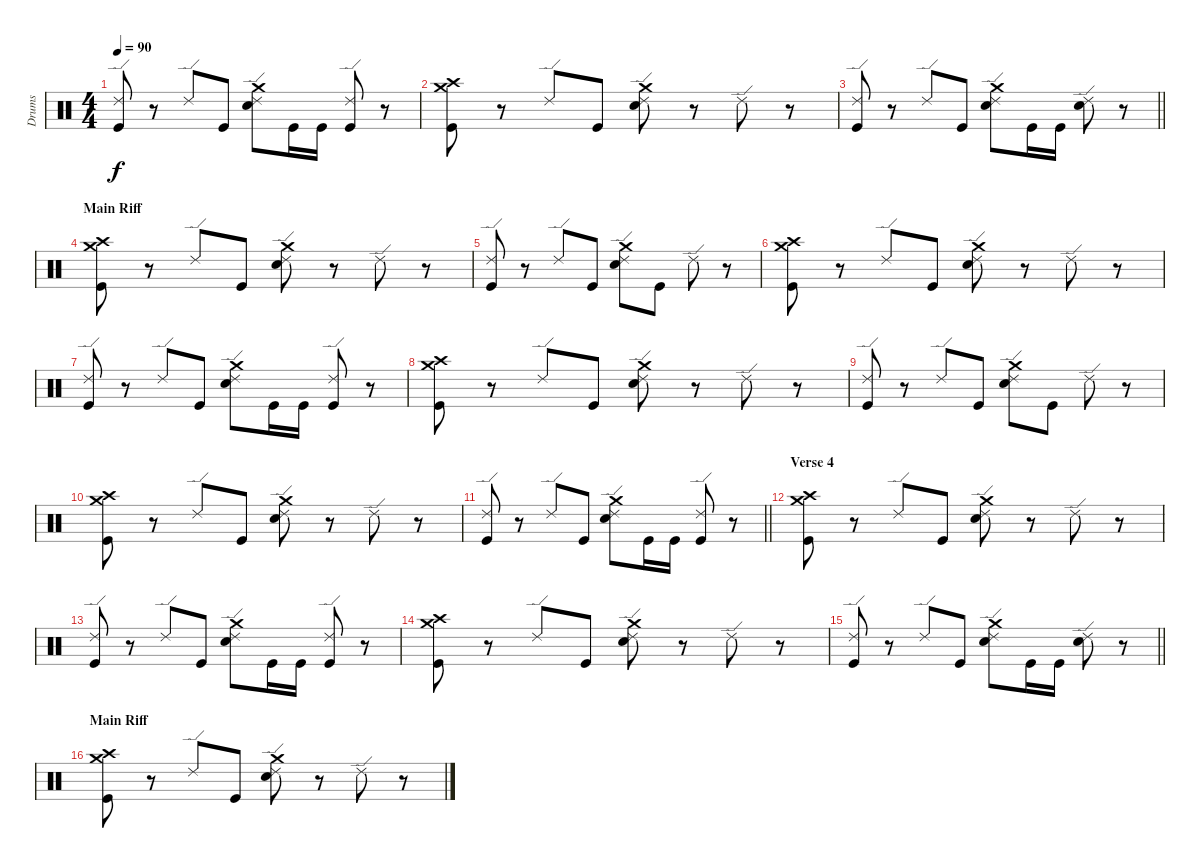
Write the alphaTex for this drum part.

\track ("Drums" "Drums") {instrument percussion}
\staff {score}
\articulation defaults
\ts (4 4)
\tempo 90
\clef neutral
\ks c
("Ride (edge) 2" "Kick (hit)").8{dy f} r.8 "Ride (edge) 2".8 "Kick (hit)".8 ("Ride (edge) 2" "Snare (hit) 2" "Crash medium (hit)").8 "Kick (hit)".16 "Kick (hit)".16 ("Ride (edge) 2" "Kick (hit)").8 r.8 |
("Crash high (hit)" "Kick (hit)" "Crash medium (hit)").8 r.8 "Ride (edge) 2".8 "Kick (hit)".8 ("Ride (edge) 2" "Snare (hit) 2" "Crash medium (hit)").8 r.8 "Ride (edge) 2".8 r.8 |
\barLineRight lightlight
("Ride (edge) 2" "Kick (hit)").8 r.8 "Ride (edge) 2".8 "Kick (hit)".8 ("Ride (edge) 2" "Snare (hit) 2" "Crash medium (hit)").8 "Kick (hit)".16 "Kick (hit)".16 ("Ride (edge) 2" "Snare (hit) 2").8 r.8 |
\section ("" "Main Riff")
("Crash high (hit)" "Kick (hit)" "Crash medium (hit)").8 r.8 "Ride (edge) 2".8 "Kick (hit)".8 ("Ride (edge) 2" "Snare (hit) 2" "Crash medium (hit)").8 r.8 "Ride (edge) 2".8 r.8 |
("Ride (edge) 2" "Kick (hit)").8 r.8 "Ride (edge) 2".8 "Kick (hit)".8 ("Ride (edge) 2" "Snare (hit) 2" "Crash medium (hit)").8 "Kick (hit)".8 "Ride (edge) 2".8 r.8 |
("Crash high (hit)" "Kick (hit)" "Crash medium (hit)").8 r.8 "Ride (edge) 2".8 "Kick (hit)".8 ("Ride (edge) 2" "Snare (hit) 2" "Crash medium (hit)").8 r.8 "Ride (edge) 2".8 r.8 |
("Ride (edge) 2" "Kick (hit)").8 r.8 "Ride (edge) 2".8 "Kick (hit)".8 ("Ride (edge) 2" "Snare (hit) 2" "Crash medium (hit)").8 "Kick (hit)".16 "Kick (hit)".16 ("Ride (edge) 2" "Kick (hit)").8 r.8 |
("Crash high (hit)" "Kick (hit)" "Crash medium (hit)").8 r.8 "Ride (edge) 2".8 "Kick (hit)".8 ("Ride (edge) 2" "Snare (hit) 2" "Crash medium (hit)").8 r.8 "Ride (edge) 2".8 r.8 |
("Ride (edge) 2" "Kick (hit)").8 r.8 "Ride (edge) 2".8 "Kick (hit)".8 ("Ride (edge) 2" "Snare (hit) 2" "Crash medium (hit)").8 "Kick (hit)".8 "Ride (edge) 2".8 r.8 |
("Crash high (hit)" "Kick (hit)" "Crash medium (hit)").8 r.8 "Ride (edge) 2".8 "Kick (hit)".8 ("Ride (edge) 2" "Snare (hit) 2" "Crash medium (hit)").8 r.8 "Ride (edge) 2".8 r.8 |
\barLineRight lightlight
("Ride (edge) 2" "Kick (hit)").8 r.8 "Ride (edge) 2".8 "Kick (hit)".8 ("Ride (edge) 2" "Snare (hit) 2" "Crash medium (hit)").8 "Kick (hit)".16 "Kick (hit)".16 ("Ride (edge) 2" "Kick (hit)").8 r.8 |
\section ("" "Verse 4")
("Crash high (hit)" "Kick (hit)" "Crash medium (hit)").8 r.8 "Ride (edge) 2".8 "Kick (hit)".8 ("Ride (edge) 2" "Snare (hit) 2" "Crash medium (hit)").8 r.8 "Ride (edge) 2".8 r.8 |
("Ride (edge) 2" "Kick (hit)").8 r.8 "Ride (edge) 2".8 "Kick (hit)".8 ("Ride (edge) 2" "Snare (hit) 2" "Crash medium (hit)").8 "Kick (hit)".16 "Kick (hit)".16 ("Ride (edge) 2" "Kick (hit)").8 r.8 |
("Crash high (hit)" "Kick (hit)" "Crash medium (hit)").8 r.8 "Ride (edge) 2".8 "Kick (hit)".8 ("Ride (edge) 2" "Snare (hit) 2" "Crash medium (hit)").8 r.8 "Ride (edge) 2".8 r.8 |
\barLineRight lightlight
("Ride (edge) 2" "Kick (hit)").8 r.8 "Ride (edge) 2".8 "Kick (hit)".8 ("Ride (edge) 2" "Snare (hit) 2" "Crash medium (hit)").8 "Kick (hit)".16 "Kick (hit)".16 ("Ride (edge) 2" "Snare (hit) 2").8 r.8 |
\section ("" "Main Riff")
("Crash high (hit)" "Kick (hit)" "Crash medium (hit)").8 r.8 "Ride (edge) 2".8 "Kick (hit)".8 ("Ride (edge) 2" "Snare (hit) 2" "Crash medium (hit)").8 r.8 "Ride (edge) 2".8 r.8
